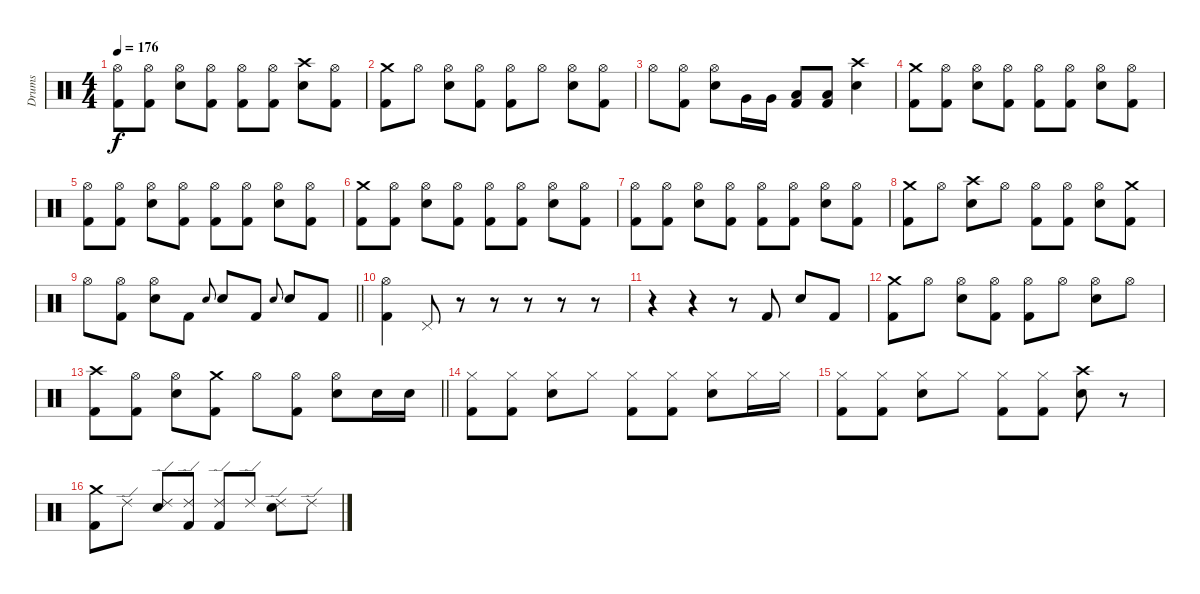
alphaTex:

\track ("Drums" "Drums") {instrument percussion}
\staff {score}
\articulation defaults
\ts (4 4)
\tempo 176
\clef neutral
\ks c
("Hi-Hat (open)" "Kick (hit) 2").8{dy f} ("Hi-Hat (open)" "Kick (hit) 2").8 ("Hi-Hat (open)" "Electric Snare (hit)").8 ("Hi-Hat (open)" "Kick (hit) 2").8 ("Hi-Hat (open)" "Kick (hit) 2").8 ("Hi-Hat (open)" "Kick (hit) 2").8 ("Crash high (hit)" "Electric Snare (hit)").8 ("Hi-Hat (open)" "Kick (hit) 2").8 |
("Crash medium (hit)" "Kick (hit) 2").8 "Hi-Hat (open)".8 ("Hi-Hat (open)" "Electric Snare (hit)").8 ("Hi-Hat (open)" "Kick (hit) 2").8 ("Hi-Hat (open)" "Kick (hit) 2").8 "Hi-Hat (open)".8 ("Hi-Hat (open)" "Electric Snare (hit)").8 ("Hi-Hat (open)" "Kick (hit) 2").8 |
"Hi-Hat (open)".8 ("Hi-Hat (open)" "Kick (hit) 2").8 ("Hi-Hat (open)" "Electric Snare (hit)").8 "Very Low Tom (hit)".16 "Very Low Tom (hit)".16 ("Low Floor Tom (hit)" "Kick (hit) 2").8 ("Low Floor Tom (hit)" "Kick (hit) 2").8 ("Crash high (hit)" "Electric Snare (hit)").4 |
("Crash medium (hit)" "Kick (hit) 2").8 ("Hi-Hat (open)" "Kick (hit) 2").8 ("Hi-Hat (open)" "Electric Snare (hit)").8 ("Hi-Hat (open)" "Kick (hit) 2").8 ("Hi-Hat (open)" "Kick (hit) 2").8 ("Hi-Hat (open)" "Kick (hit) 2").8 ("Hi-Hat (open)" "Electric Snare (hit)").8 ("Hi-Hat (open)" "Kick (hit) 2").8 |
("Hi-Hat (open)" "Kick (hit) 2").8 ("Hi-Hat (open)" "Kick (hit) 2").8 ("Hi-Hat (open)" "Electric Snare (hit)").8 ("Hi-Hat (open)" "Kick (hit) 2").8 ("Hi-Hat (open)" "Kick (hit) 2").8 ("Hi-Hat (open)" "Kick (hit) 2").8 ("Hi-Hat (open)" "Electric Snare (hit)").8 ("Hi-Hat (open)" "Kick (hit) 2").8 |
("Crash medium (hit)" "Kick (hit) 2").8 ("Hi-Hat (open)" "Kick (hit) 2").8 ("Hi-Hat (open)" "Electric Snare (hit)").8 ("Hi-Hat (open)" "Kick (hit) 2").8 ("Hi-Hat (open)" "Kick (hit) 2").8 ("Hi-Hat (open)" "Kick (hit) 2").8 ("Hi-Hat (open)" "Electric Snare (hit)").8 ("Hi-Hat (open)" "Kick (hit) 2").8 |
("Hi-Hat (open)" "Kick (hit) 2").8 ("Hi-Hat (open)" "Kick (hit) 2").8 ("Hi-Hat (open)" "Electric Snare (hit)").8 ("Hi-Hat (open)" "Kick (hit) 2").8 ("Hi-Hat (open)" "Kick (hit) 2").8 ("Hi-Hat (open)" "Kick (hit) 2").8 ("Hi-Hat (open)" "Electric Snare (hit)").8 ("Hi-Hat (open)" "Kick (hit) 2").8 |
("Crash medium (hit)" "Kick (hit) 2").8 "Hi-Hat (open)".8 ("Crash high (hit)" "Electric Snare (hit)").8 "Hi-Hat (open)".8 ("Hi-Hat (open)" "Kick (hit) 2").8 ("Hi-Hat (open)" "Kick (hit) 2").8 ("Hi-Hat (open)" "Electric Snare (hit)").8 ("Crash medium (hit)" "Kick (hit) 2").8 |
\barLineRight lightlight "Hi-Hat (open)".8
("Hi-Hat (open)" "Kick (hit) 2").8 ("Hi-Hat (open)" "Electric Snare (hit)").8 "Kick (hit) 2".8 "Electric Snare (hit)".8{gr onbeat} "Electric Snare (hit)".8 "Kick (hit) 2".8 "Electric Snare (hit)".8{gr onbeat} "Electric Snare (hit)".8 "Kick (hit) 2".8 |
("Hi-Hat (open)" "Kick (hit) 2").4 "Pedal Hi-Hat (hit)".8 r.8 r.8 r.8 r.8 r.8 |
r.4 r.4 r.8 "Kick (hit) 2".8 "Electric Snare (hit)".8 "Kick (hit) 2".8 |
("Crash medium (hit)" "Kick (hit) 2").8 "Hi-Hat (open)".8 ("Hi-Hat (open)" "Electric Snare (hit)").8 ("Hi-Hat (open)" "Kick (hit) 2").8 ("Hi-Hat (open)" "Kick (hit) 2").8 "Hi-Hat (open)".8 ("Hi-Hat (open)" "Electric Snare (hit)").8 "Hi-Hat (open)".8 |
\barLineRight lightlight
("Crash high (hit)" "Kick (hit) 2").8 ("Hi-Hat (open)" "Kick (hit) 2").8 ("Hi-Hat (open)" "Electric Snare (hit)").8 ("Crash medium (hit)" "Kick (hit) 2").8 "Hi-Hat (open)".8 ("Hi-Hat (open)" "Kick (hit) 2").8 ("Hi-Hat (open)" "Electric Snare (hit)").8 "Electric Snare (hit)".16 "Electric Snare (hit)".16 |
("Hi-Hat (closed)" "Kick (hit) 2").8 ("Hi-Hat (closed)" "Kick (hit) 2").8 ("Hi-Hat (closed)" "Electric Snare (hit)").8 "Hi-Hat (closed)".8 ("Hi-Hat (closed)" "Kick (hit) 2").8 ("Hi-Hat (closed)" "Kick (hit) 2").8 ("Hi-Hat (closed)" "Electric Snare (hit)").8 "Hi-Hat (closed)".16 "Hi-Hat (closed)".16 |
("Hi-Hat (closed)" "Kick (hit) 2").8 ("Hi-Hat (closed)" "Kick (hit) 2").8 ("Hi-Hat (closed)" "Electric Snare (hit)").8 "Hi-Hat (closed)".8 ("Hi-Hat (closed)" "Kick (hit) 2").8 ("Hi-Hat (closed)" "Kick (hit) 2").8 ("Crash high (hit)" "Electric Snare (hit)").8 r.8 |
("Crash medium (hit)" "Kick (hit) 2").8 "Ride (edge) 2".8 ("Ride (edge) 2" "Electric Snare (hit)").8 ("Ride (edge) 2" "Kick (hit) 2").8 ("Ride (edge) 2" "Kick (hit) 2").8 "Ride (edge) 2".8 ("Ride (edge) 2" "Electric Snare (hit)").8 "Ride (edge) 2".8
